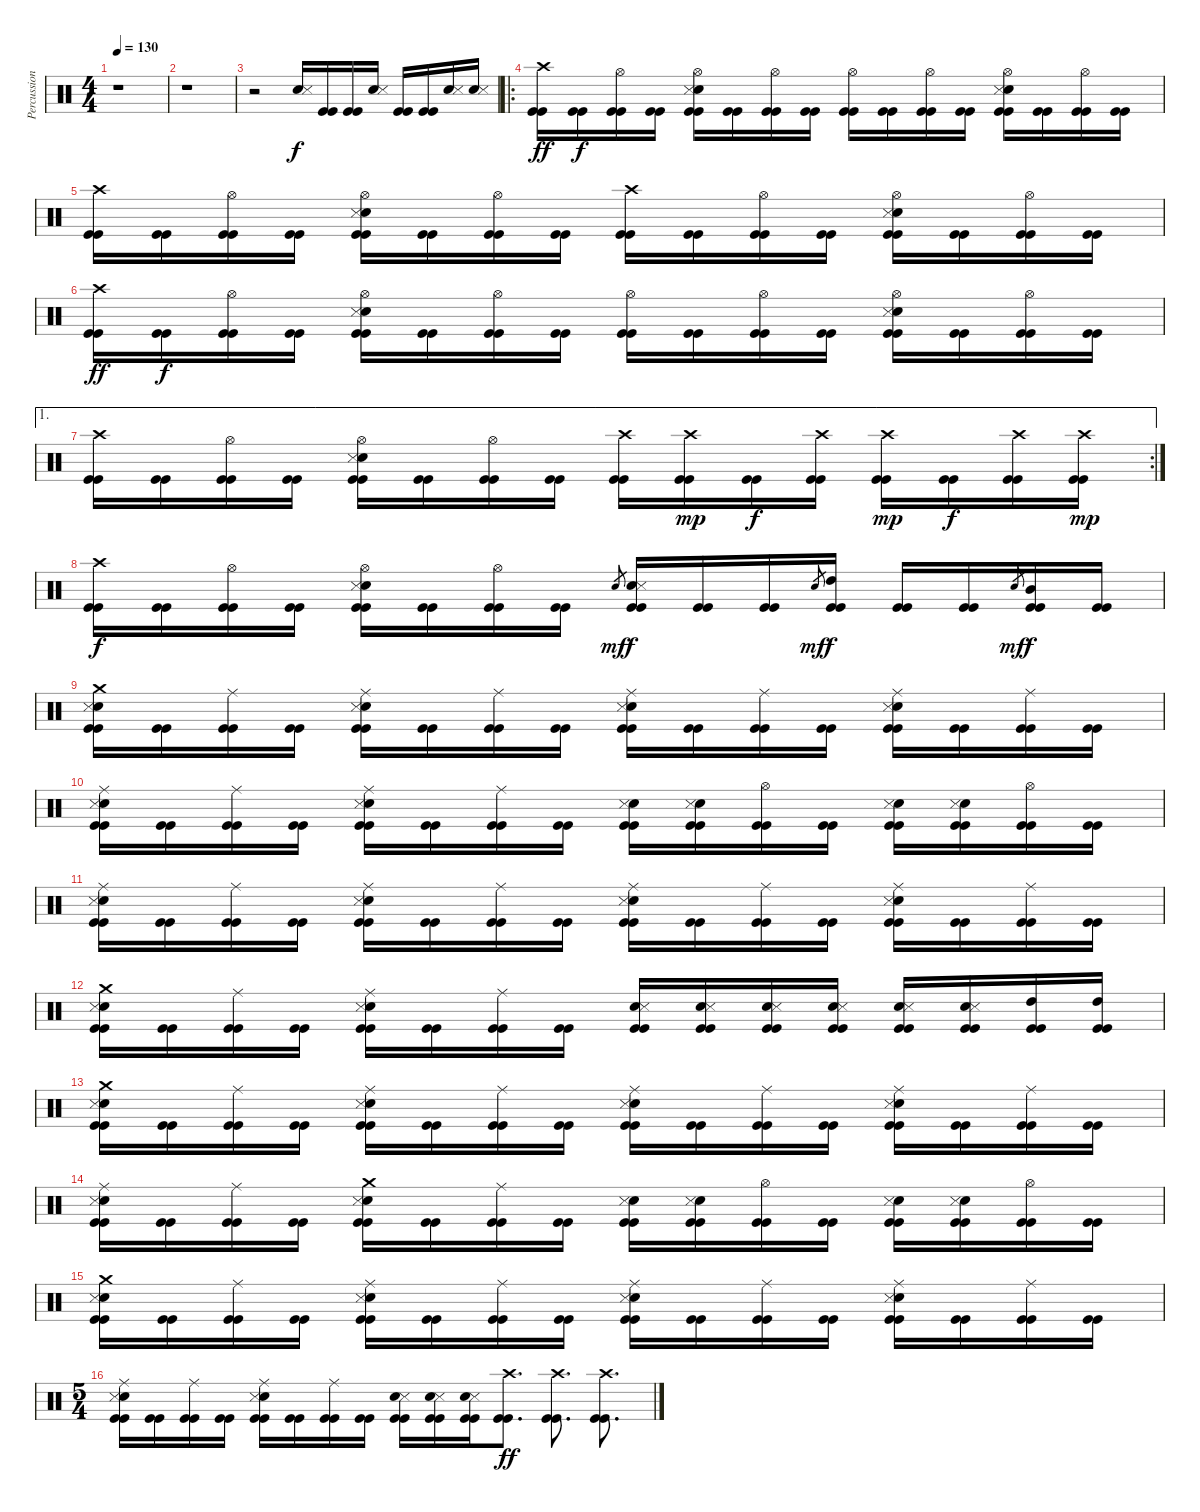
\track ("Percussion" "Percussion") {instrument percussion}
\staff {score}
\articulation defaults
\ts (4 4)
\tempo 130
\clef neutral
\ks c
r.1{dy ff} |
r.1 |
r.2 ("Snare (hit) 2" "Snare (side stick) 3").16{dy f} ("Kick (hit)" "Kick (hit)").16 ("Kick (hit)" "Kick (hit)").16 ("Snare (hit) 2" "Snare (side stick) 3").16 ("Kick (hit)" "Kick (hit)").16 ("Kick (hit)" "Kick (hit)").16 ("Snare (hit) 2" "Snare (side stick) 3").16 ("Snare (hit) 2" "Snare (side stick) 3").16 |
\ro
("Crash high (hit)" "Kick (hit)" "Kick (hit)").16{dy ff} ("Kick (hit)" "Kick (hit)").16{dy f} ("Hi-Hat (open)" "Kick (hit)" "Kick (hit)").16 ("Kick (hit)" "Kick (hit)").16 ("Snare (hit) 2" "Snare (side stick) 3" "Hi-Hat (open)" "Kick (hit)" "Kick (hit)").16 ("Kick (hit)" "Kick (hit)").16 ("Hi-Hat (open)" "Kick (hit)" "Kick (hit)").16 ("Kick (hit)" "Kick (hit)").16 ("Hi-Hat (open)" "Kick (hit)" "Kick (hit)").16 ("Kick (hit)" "Kick (hit)").16 ("Hi-Hat (open)" "Kick (hit)" "Kick (hit)").16 ("Kick (hit)" "Kick (hit)").16 ("Snare (hit) 2" "Snare (side stick) 3" "Hi-Hat (open)" "Kick (hit)" "Kick (hit)").16 ("Kick (hit)" "Kick (hit)").16 ("Hi-Hat (open)" "Kick (hit)" "Kick (hit)").16 ("Kick (hit)" "Kick (hit)").16 |
("Crash high (hit)" "Kick (hit)" "Kick (hit)").16 ("Kick (hit)" "Kick (hit)").16 ("Hi-Hat (open)" "Kick (hit)" "Kick (hit)").16 ("Kick (hit)" "Kick (hit)").16 ("Snare (hit) 2" "Snare (side stick) 3" "Hi-Hat (open)" "Kick (hit)" "Kick (hit)").16 ("Kick (hit)" "Kick (hit)").16 ("Hi-Hat (open)" "Kick (hit)" "Kick (hit)").16 ("Kick (hit)" "Kick (hit)").16 ("Crash high (hit)" "Kick (hit)" "Kick (hit)").16 ("Kick (hit)" "Kick (hit)").16 ("Hi-Hat (open)" "Kick (hit)" "Kick (hit)").16 ("Kick (hit)" "Kick (hit)").16 ("Snare (hit) 2" "Snare (side stick) 3" "Hi-Hat (open)" "Kick (hit)" "Kick (hit)").16 ("Kick (hit)" "Kick (hit)").16 ("Hi-Hat (open)" "Kick (hit)" "Kick (hit)").16 ("Kick (hit)" "Kick (hit)").16 |
("Crash high (hit)" "Kick (hit)" "Kick (hit)").16{dy ff} ("Kick (hit)" "Kick (hit)").16{dy f} ("Hi-Hat (open)" "Kick (hit)" "Kick (hit)").16 ("Kick (hit)" "Kick (hit)").16 ("Snare (hit) 2" "Snare (side stick) 3" "Hi-Hat (open)" "Kick (hit)" "Kick (hit)").16 ("Kick (hit)" "Kick (hit)").16 ("Hi-Hat (open)" "Kick (hit)" "Kick (hit)").16 ("Kick (hit)" "Kick (hit)").16 ("Hi-Hat (open)" "Kick (hit)" "Kick (hit)").16 ("Kick (hit)" "Kick (hit)").16 ("Hi-Hat (open)" "Kick (hit)" "Kick (hit)").16 ("Kick (hit)" "Kick (hit)").16 ("Snare (hit) 2" "Snare (side stick) 3" "Hi-Hat (open)" "Kick (hit)" "Kick (hit)").16 ("Kick (hit)" "Kick (hit)").16 ("Hi-Hat (open)" "Kick (hit)" "Kick (hit)").16 ("Kick (hit)" "Kick (hit)").16 |
\ae 1
\rc 2
("Crash high (hit)" "Kick (hit)" "Kick (hit)").16 ("Kick (hit)" "Kick (hit)").16 ("Hi-Hat (open)" "Kick (hit)" "Kick (hit)").16 ("Kick (hit)" "Kick (hit)").16 ("Snare (hit) 2" "Snare (side stick) 3" "Hi-Hat (open)" "Kick (hit)" "Kick (hit)").16 ("Kick (hit)" "Kick (hit)").16 ("Hi-Hat (open)" "Kick (hit)" "Kick (hit)").16 ("Kick (hit)" "Kick (hit)").16 ("Crash high (hit)" "Kick (hit)" "Kick (hit)").16 ("Crash high (hit)" "Kick (hit)" "Kick (hit)").16{dy mp} ("Kick (hit)" "Kick (hit)").16{dy f} ("Crash high (hit)" "Kick (hit)" "Kick (hit)").16 ("Crash high (hit)" "Kick (hit)" "Kick (hit)").16{dy mp} ("Kick (hit)" "Kick (hit)").16{dy f} ("Crash high (hit)" "Kick (hit)" "Kick (hit)").16 ("Crash high (hit)" "Kick (hit)" "Kick (hit)").16{dy mp} |
("Crash high (hit)" "Kick (hit)" "Kick (hit)").16{dy f} ("Kick (hit)" "Kick (hit)").16 ("Hi-Hat (open)" "Kick (hit)" "Kick (hit)").16 ("Kick (hit)" "Kick (hit)").16 ("Snare (hit) 2" "Snare (side stick) 3" "Hi-Hat (open)" "Kick (hit)" "Kick (hit)").16 ("Kick (hit)" "Kick (hit)").16 ("Hi-Hat (open)" "Kick (hit)" "Kick (hit)").16 ("Kick (hit)" "Kick (hit)").16 "Snare (hit)".8{gr dy mf} ("Snare (hit) 2" "Snare (side stick) 3" "Kick (hit)" "Kick (hit)").16{dy f} ("Kick (hit)" "Kick (hit)").16 ("Kick (hit)" "Kick (hit)").16 "Snare (hit)".8{gr dy mf} ("High Tom (hit)" "Kick (hit)" "Kick (hit)").16{dy f} ("Kick (hit)" "Kick (hit)").16 ("Kick (hit)" "Kick (hit)").16 "Snare (hit)".8{gr dy mf} ("Mid Tom (hit)" "Kick (hit)" "Kick (hit)").16{dy f} ("Kick (hit)" "Kick (hit)").16 |
("Snare (hit) 2" "Snare (side stick) 3" "Crash medium (hit)" "Kick (hit)" "Kick (hit)").16 ("Kick (hit)" "Kick (hit)").16 ("Ride (middle)" "Kick (hit)" "Kick (hit)").16 ("Kick (hit)" "Kick (hit)").16 ("Snare (hit) 2" "Snare (side stick) 3" "Ride (middle)" "Kick (hit)" "Kick (hit)").16 ("Kick (hit)" "Kick (hit)").16 ("Ride (middle)" "Kick (hit)" "Kick (hit)").16 ("Kick (hit)" "Kick (hit)").16 ("Snare (hit) 2" "Snare (side stick) 3" "Ride (middle)" "Kick (hit)" "Kick (hit)").16 ("Kick (hit)" "Kick (hit)").16 ("Ride (middle)" "Kick (hit)" "Kick (hit)").16 ("Kick (hit)" "Kick (hit)").16 ("Snare (hit) 2" "Snare (side stick) 3" "Ride (middle)" "Kick (hit)" "Kick (hit)").16 ("Kick (hit)" "Kick (hit)").16 ("Ride (middle)" "Kick (hit)" "Kick (hit)").16 ("Kick (hit)" "Kick (hit)").16 |
("Snare (hit) 2" "Snare (side stick) 3" "Ride (middle)" "Kick (hit)" "Kick (hit)").16 ("Kick (hit)" "Kick (hit)").16 ("Ride (middle)" "Kick (hit)" "Kick (hit)").16 ("Kick (hit)" "Kick (hit)").16 ("Snare (hit) 2" "Snare (side stick) 3" "Ride (middle)" "Kick (hit)" "Kick (hit)").16 ("Kick (hit)" "Kick (hit)").16 ("Ride (middle)" "Kick (hit)" "Kick (hit)").16 ("Kick (hit)" "Kick (hit)").16 ("Snare (hit) 2" "Snare (side stick) 3" "Kick (hit)" "Kick (hit)").16 ("Snare (hit) 2" "Snare (side stick) 3" "Kick (hit)" "Kick (hit)").16 ("Hi-Hat (open)" "Kick (hit)" "Kick (hit)").16 ("Kick (hit)" "Kick (hit)").16 ("Snare (hit) 2" "Snare (side stick) 3" "Kick (hit)" "Kick (hit)").16 ("Snare (hit) 2" "Snare (side stick) 3" "Kick (hit)" "Kick (hit)").16 ("Hi-Hat (open)" "Kick (hit)" "Kick (hit)").16 ("Kick (hit)" "Kick (hit)").16 |
("Snare (hit) 2" "Snare (side stick) 3" "Ride (middle)" "Kick (hit)" "Kick (hit)").16 ("Kick (hit)" "Kick (hit)").16 ("Ride (middle)" "Kick (hit)" "Kick (hit)").16 ("Kick (hit)" "Kick (hit)").16 ("Snare (hit) 2" "Snare (side stick) 3" "Ride (middle)" "Kick (hit)" "Kick (hit)").16 ("Kick (hit)" "Kick (hit)").16 ("Ride (middle)" "Kick (hit)" "Kick (hit)").16 ("Kick (hit)" "Kick (hit)").16 ("Snare (hit) 2" "Snare (side stick) 3" "Ride (middle)" "Kick (hit)" "Kick (hit)").16 ("Kick (hit)" "Kick (hit)").16 ("Ride (middle)" "Kick (hit)" "Kick (hit)").16 ("Kick (hit)" "Kick (hit)").16 ("Snare (hit) 2" "Snare (side stick) 3" "Ride (middle)" "Kick (hit)" "Kick (hit)").16 ("Kick (hit)" "Kick (hit)").16 ("Ride (middle)" "Kick (hit)" "Kick (hit)").16 ("Kick (hit)" "Kick (hit)").16 |
("Kick (hit)" "Crash medium (hit)" "Snare (hit) 2" "Snare (side stick) 3" "Kick (hit)").16 ("Kick (hit)" "Kick (hit)").16 ("Ride (middle)" "Kick (hit)" "Kick (hit)").16 ("Kick (hit)" "Kick (hit)").16 ("Kick (hit)" "Ride (middle)" "Snare (hit) 2" "Snare (side stick) 3" "Kick (hit)").16 ("Kick (hit)" "Kick (hit)").16 ("Ride (middle)" "Kick (hit)" "Kick (hit)").16 ("Kick (hit)" "Kick (hit)").16 ("Snare (hit) 2" "Snare (side stick) 3" "Kick (hit)" "Kick (hit)").16 ("Snare (hit) 2" "Snare (side stick) 3" "Kick (hit)" "Kick (hit)").16 ("Snare (hit) 2" "Snare (side stick) 3" "Kick (hit)" "Kick (hit)").16 ("Snare (hit) 2" "Snare (side stick) 3" "Kick (hit)" "Kick (hit)").16 ("Snare (hit) 2" "Snare (side stick) 3" "Kick (hit)" "Kick (hit)").16 ("Snare (hit) 2" "Snare (side stick) 3" "Kick (hit)" "Kick (hit)").16 ("High Tom (hit)" "Kick (hit)" "Kick (hit)").16 ("High Tom (hit)" "Kick (hit)" "Kick (hit)").16 |
("Snare (hit) 2" "Snare (side stick) 3" "Crash medium (hit)" "Kick (hit)" "Kick (hit)").16 ("Kick (hit)" "Kick (hit)").16 ("Ride (middle)" "Kick (hit)" "Kick (hit)").16 ("Kick (hit)" "Kick (hit)").16 ("Snare (hit) 2" "Snare (side stick) 3" "Ride (middle)" "Kick (hit)" "Kick (hit)").16 ("Kick (hit)" "Kick (hit)").16 ("Ride (middle)" "Kick (hit)" "Kick (hit)").16 ("Kick (hit)" "Kick (hit)").16 ("Snare (hit) 2" "Snare (side stick) 3" "Ride (middle)" "Kick (hit)" "Kick (hit)").16 ("Kick (hit)" "Kick (hit)").16 ("Ride (middle)" "Kick (hit)" "Kick (hit)").16 ("Kick (hit)" "Kick (hit)").16 ("Snare (hit) 2" "Snare (side stick) 3" "Ride (middle)" "Kick (hit)" "Kick (hit)").16 ("Kick (hit)" "Kick (hit)").16 ("Ride (middle)" "Kick (hit)" "Kick (hit)").16 ("Kick (hit)" "Kick (hit)").16 |
("Snare (hit) 2" "Snare (side stick) 3" "Ride (middle)" "Kick (hit)" "Kick (hit)").16 ("Kick (hit)" "Kick (hit)").16 ("Ride (middle)" "Kick (hit)" "Kick (hit)").16 ("Kick (hit)" "Kick (hit)").16 ("Snare (hit) 2" "Snare (side stick) 3" "Crash medium (hit)" "Kick (hit)" "Kick (hit)").16 ("Kick (hit)" "Kick (hit)").16 ("Ride (middle)" "Kick (hit)" "Kick (hit)").16 ("Kick (hit)" "Kick (hit)").16 ("Snare (hit) 2" "Snare (side stick) 3" "Kick (hit)" "Kick (hit)").16 ("Snare (hit) 2" "Snare (side stick) 3" "Kick (hit)" "Kick (hit)").16 ("Hi-Hat (open)" "Kick (hit)" "Kick (hit)").16 ("Kick (hit)" "Kick (hit)").16 ("Snare (hit) 2" "Snare (side stick) 3" "Kick (hit)" "Kick (hit)").16 ("Snare (hit) 2" "Snare (side stick) 3" "Kick (hit)" "Kick (hit)").16 ("Hi-Hat (open)" "Kick (hit)" "Kick (hit)").16 ("Kick (hit)" "Kick (hit)").16 |
("Snare (hit) 2" "Snare (side stick) 3" "Crash medium (hit)" "Kick (hit)" "Kick (hit)").16 ("Kick (hit)" "Kick (hit)").16 ("Ride (middle)" "Kick (hit)" "Kick (hit)").16 ("Kick (hit)" "Kick (hit)").16 ("Snare (hit) 2" "Snare (side stick) 3" "Ride (middle)" "Kick (hit)" "Kick (hit)").16 ("Kick (hit)" "Kick (hit)").16 ("Ride (middle)" "Kick (hit)" "Kick (hit)").16 ("Kick (hit)" "Kick (hit)").16 ("Snare (hit) 2" "Snare (side stick) 3" "Ride (middle)" "Kick (hit)" "Kick (hit)").16 ("Kick (hit)" "Kick (hit)").16 ("Ride (middle)" "Kick (hit)" "Kick (hit)").16 ("Kick (hit)" "Kick (hit)").16 ("Snare (hit) 2" "Snare (side stick) 3" "Ride (middle)" "Kick (hit)" "Kick (hit)").16 ("Kick (hit)" "Kick (hit)").16 ("Ride (middle)" "Kick (hit)" "Kick (hit)").16 ("Kick (hit)" "Kick (hit)").16 |
\ts (5 4)
("Snare (hit) 2" "Snare (side stick) 3" "Ride (middle)" "Kick (hit)" "Kick (hit)").16 ("Kick (hit)" "Kick (hit)").16 ("Ride (middle)" "Kick (hit)" "Kick (hit)").16 ("Kick (hit)" "Kick (hit)").16 ("Snare (hit) 2" "Snare (side stick) 3" "Ride (middle)" "Kick (hit)" "Kick (hit)").16 ("Kick (hit)" "Kick (hit)").16 ("Ride (middle)" "Kick (hit)" "Kick (hit)").16 ("Kick (hit)" "Kick (hit)").16 ("Snare (side stick) 3" "Snare (hit) 2" "Kick (hit)" "Kick (hit)").16 ("Snare (side stick) 3" "Snare (hit) 2" "Kick (hit)" "Kick (hit)").16 ("Snare (side stick) 3" "Snare (hit) 2" "Kick (hit)" "Kick (hit)").16 ("Crash high (hit)" "Kick (hit)" "Kick (hit)").8{d dy ff} ("Crash high (hit)" "Kick (hit)" "Kick (hit)").8{d} ("Crash high (hit)" "Kick (hit)" "Kick (hit)").8{d}
